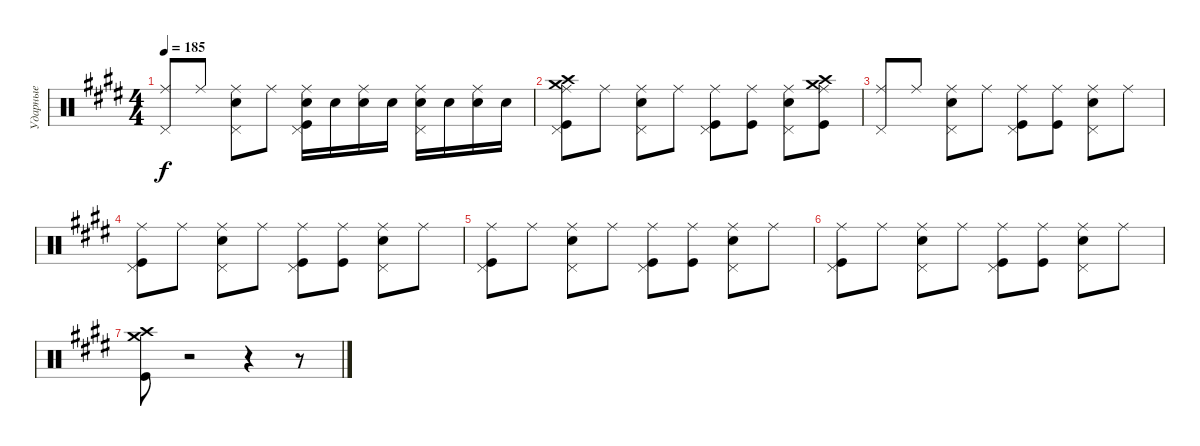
\track ("Ударные" "Ударные") {instrument percussion}
\staff {score}
\articulation defaults
\ts (4 4)
\tempo 185
\clef neutral
\ks c#minor
("Ride (middle)" "Pedal Hi-Hat (hit)").8{dy f} "Ride (middle)".8 ("Ride (middle)" "Pedal Hi-Hat (hit)" "Electric Snare (hit)").8 "Ride (middle)".8 ("Electric Snare (hit)" "Kick (hit)" "Ride (middle)" "Pedal Hi-Hat (hit)").16 "Electric Snare (hit)".16 ("Electric Snare (hit)" "Ride (middle)").16 "Electric Snare (hit)".16 ("Electric Snare (hit)" "Ride (middle)" "Pedal Hi-Hat (hit)").16 "Electric Snare (hit)".16 ("Electric Snare (hit)" "Ride (middle)").16 "Electric Snare (hit)".16 |
("Kick (hit)" "Pedal Hi-Hat (hit)" "Ride (middle)" "Crash high (hit)" "Crash medium (hit)").8 "Ride (middle)".8 ("Electric Snare (hit)" "Pedal Hi-Hat (hit)" "Ride (middle)").8 "Ride (middle)".8 ("Kick (hit)" "Pedal Hi-Hat (hit)" "Ride (middle)").8 ("Kick (hit)" "Ride (middle)").8 ("Electric Snare (hit)" "Pedal Hi-Hat (hit)" "Ride (middle)").8 ("Crash medium (hit)" "Crash high (hit)" "Kick (hit)" "Ride (middle)").8 |
("Ride (middle)" "Pedal Hi-Hat (hit)").8 "Ride (middle)".8 ("Ride (middle)" "Pedal Hi-Hat (hit)" "Electric Snare (hit)").8 "Ride (middle)".8 ("Ride (middle)" "Kick (hit)" "Pedal Hi-Hat (hit)").8 ("Ride (middle)" "Kick (hit)").8 ("Electric Snare (hit)" "Pedal Hi-Hat (hit)" "Ride (middle)").8 "Ride (middle)".8 |
("Ride (middle)" "Pedal Hi-Hat (hit)" "Kick (hit)").8 "Ride (middle)".8 ("Ride (middle)" "Pedal Hi-Hat (hit)" "Electric Snare (hit)").8 "Ride (middle)".8 ("Ride (middle)" "Pedal Hi-Hat (hit)" "Kick (hit)").8 ("Kick (hit)" "Ride (middle)").8 ("Ride (middle)" "Pedal Hi-Hat (hit)" "Electric Snare (hit)").8 "Ride (middle)".8 |
("Ride (middle)" "Pedal Hi-Hat (hit)" "Kick (hit)").8 "Ride (middle)".8 ("Ride (middle)" "Pedal Hi-Hat (hit)" "Electric Snare (hit)").8 "Ride (middle)".8 ("Kick (hit)" "Ride (middle)" "Pedal Hi-Hat (hit)").8 ("Kick (hit)" "Ride (middle)").8 ("Ride (middle)" "Pedal Hi-Hat (hit)" "Electric Snare (hit)").8 "Ride (middle)".8 |
("Kick (hit)" "Pedal Hi-Hat (hit)" "Ride (middle)").8 "Ride (middle)".8 ("Electric Snare (hit)" "Pedal Hi-Hat (hit)" "Ride (middle)").8 "Ride (middle)".8 ("Kick (hit)" "Pedal Hi-Hat (hit)" "Ride (middle)").8 ("Kick (hit)" "Ride (middle)").8 ("Electric Snare (hit)" "Pedal Hi-Hat (hit)" "Ride (middle)").8 "Ride (middle)".8 |
("Crash high (hit)" "Kick (hit)" "Crash medium (hit)").8 r.2 r.4 r.8
